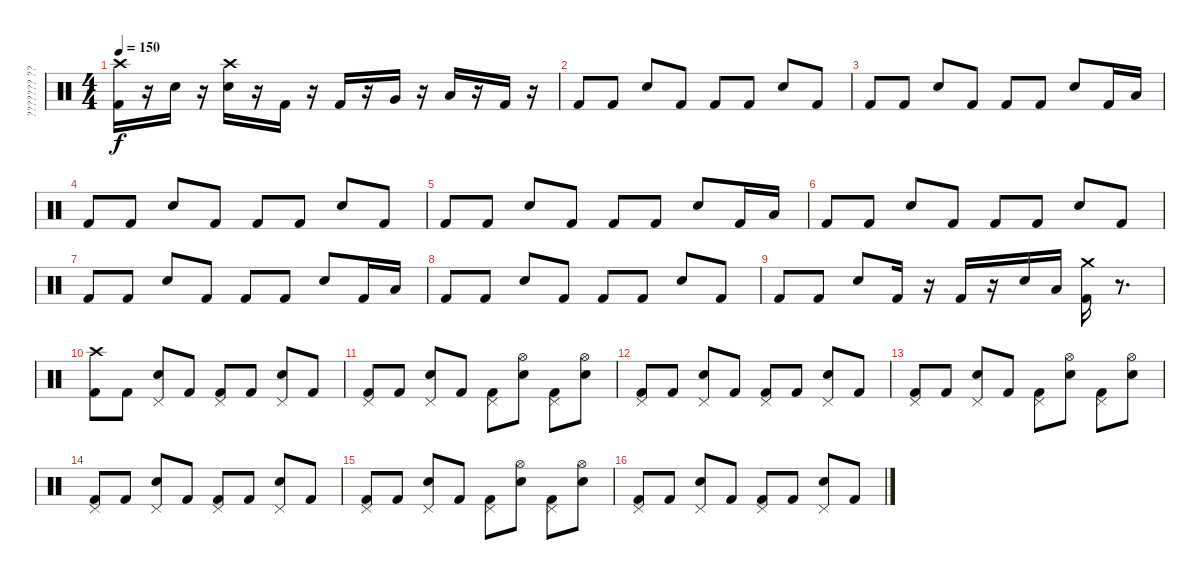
\track ("??????? ?????????" "??????? ??") {instrument percussion}
\staff {score}
\articulation defaults
\ts (4 4)
\tempo 150
\clef neutral
\ks c
("Crash high (hit)" "Kick (hit) 2").16{dy f} r.16 "Electric Snare (hit)".16 r.16 ("Crash high (hit)" "Electric Snare (hit)").16 r.16 "Kick (hit) 2".16 r.16 "Kick (hit) 2".16 r.16 "Very Low Tom (hit)".16 r.16 "Low Floor Tom (hit)".16 r.16 "Kick (hit) 2".16 r.16 |
"Kick (hit) 2".8 "Kick (hit) 2".8 "Electric Snare (hit)".8 "Kick (hit) 2".8 "Kick (hit) 2".8 "Kick (hit) 2".8 "Electric Snare (hit)".8 "Kick (hit) 2".8 |
"Kick (hit) 2".8 "Kick (hit) 2".8 "Electric Snare (hit)".8 "Kick (hit) 2".8 "Kick (hit) 2".8 "Kick (hit) 2".8 "Electric Snare (hit)".8 "Kick (hit) 2".16 "Low Tom (hit)".16 |
"Kick (hit) 2".8 "Kick (hit) 2".8 "Electric Snare (hit)".8 "Kick (hit) 2".8 "Kick (hit) 2".8 "Kick (hit) 2".8 "Electric Snare (hit)".8 "Kick (hit) 2".8 |
"Kick (hit) 2".8 "Kick (hit) 2".8 "Electric Snare (hit)".8 "Kick (hit) 2".8 "Kick (hit) 2".8 "Kick (hit) 2".8 "Electric Snare (hit)".8 "Kick (hit) 2".16 "Low Tom (hit)".16 |
"Kick (hit) 2".8 "Kick (hit) 2".8 "Electric Snare (hit)".8 "Kick (hit) 2".8 "Kick (hit) 2".8 "Kick (hit) 2".8 "Electric Snare (hit)".8 "Kick (hit) 2".8 |
"Kick (hit) 2".8 "Kick (hit) 2".8 "Electric Snare (hit)".8 "Kick (hit) 2".8 "Kick (hit) 2".8 "Kick (hit) 2".8 "Electric Snare (hit)".8 "Kick (hit) 2".16 "Low Tom (hit)".16 |
"Kick (hit) 2".8 "Kick (hit) 2".8 "Electric Snare (hit)".8 "Kick (hit) 2".8 "Kick (hit) 2".8 "Kick (hit) 2".8 "Electric Snare (hit)".8 "Kick (hit) 2".8 |
"Kick (hit) 2".8 "Kick (hit) 2".8 "Electric Snare (hit)".8 "Kick (hit) 2".16 r.16 "Kick (hit) 2".16 r.16 "Electric Snare (hit)".16 "Low Tom (hit)".16 ("Crash medium (hit)" "Kick (hit) 2").16 r.8{d} |
("Crash high (hit)" "Kick (hit) 2").8 "Kick (hit) 2".8 ("Pedal Hi-Hat (hit)" "Electric Snare (hit)").8 "Kick (hit) 2".8 ("Pedal Hi-Hat (hit)" "Kick (hit) 2").8 "Kick (hit) 2".8 ("Pedal Hi-Hat (hit)" "Electric Snare (hit)").8 "Kick (hit) 2".8 |
("Pedal Hi-Hat (hit)" "Kick (hit) 2").8 "Kick (hit) 2".8 ("Pedal Hi-Hat (hit)" "Electric Snare (hit)").8 "Kick (hit) 2".8 ("Pedal Hi-Hat (hit)" "Kick (hit) 2").8 ("Hi-Hat (open)" "Electric Snare (hit)").8 ("Pedal Hi-Hat (hit)" "Kick (hit) 2").8 ("Hi-Hat (open)" "Electric Snare (hit)").8 |
("Pedal Hi-Hat (hit)" "Kick (hit) 2").8 "Kick (hit) 2".8 ("Pedal Hi-Hat (hit)" "Electric Snare (hit)").8 "Kick (hit) 2".8 ("Pedal Hi-Hat (hit)" "Kick (hit) 2").8 "Kick (hit) 2".8 ("Pedal Hi-Hat (hit)" "Electric Snare (hit)").8 "Kick (hit) 2".8 |
("Pedal Hi-Hat (hit)" "Kick (hit) 2").8 "Kick (hit) 2".8 ("Pedal Hi-Hat (hit)" "Electric Snare (hit)").8 "Kick (hit) 2".8 ("Pedal Hi-Hat (hit)" "Kick (hit) 2").8 ("Hi-Hat (open)" "Electric Snare (hit)").8 ("Pedal Hi-Hat (hit)" "Kick (hit) 2").8 ("Hi-Hat (open)" "Electric Snare (hit)").8 |
("Pedal Hi-Hat (hit)" "Kick (hit) 2").8 "Kick (hit) 2".8 ("Pedal Hi-Hat (hit)" "Electric Snare (hit)").8 "Kick (hit) 2".8 ("Pedal Hi-Hat (hit)" "Kick (hit) 2").8 "Kick (hit) 2".8 ("Pedal Hi-Hat (hit)" "Electric Snare (hit)").8 "Kick (hit) 2".8 |
("Pedal Hi-Hat (hit)" "Kick (hit) 2").8 "Kick (hit) 2".8 ("Pedal Hi-Hat (hit)" "Electric Snare (hit)").8 "Kick (hit) 2".8 ("Pedal Hi-Hat (hit)" "Kick (hit) 2").8 ("Hi-Hat (open)" "Electric Snare (hit)").8 ("Pedal Hi-Hat (hit)" "Kick (hit) 2").8 ("Hi-Hat (open)" "Electric Snare (hit)").8 |
("Pedal Hi-Hat (hit)" "Kick (hit) 2").8 "Kick (hit) 2".8 ("Pedal Hi-Hat (hit)" "Electric Snare (hit)").8 "Kick (hit) 2".8 ("Pedal Hi-Hat (hit)" "Kick (hit) 2").8 "Kick (hit) 2".8 ("Pedal Hi-Hat (hit)" "Electric Snare (hit)").8 "Kick (hit) 2".8
